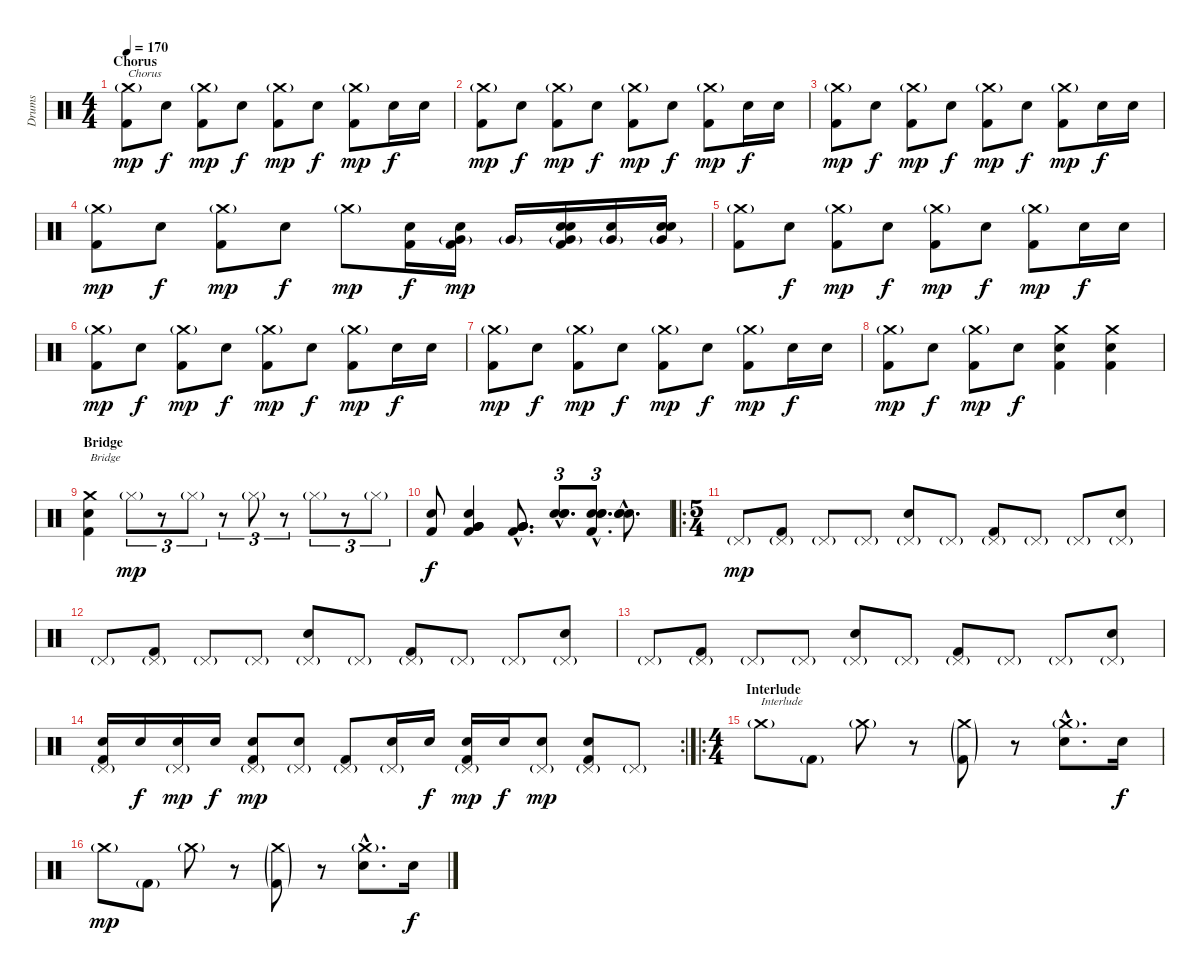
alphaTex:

\track ("Drums" "Drums") {instrument percussion}
\staff {score}
\articulation defaults
\ts (4 4)
\section ("" "Chorus")
\tempo 170
\clef neutral
\ks c
("Crash medium (hit)"{g} "Kick (hit) 2").8{txt "Chorus" dy mp} "Snare (hit) 2".8{dy f} ("Crash medium (hit)"{g} "Kick (hit) 2").8{dy mp} "Snare (hit) 2".8{dy f} ("Crash medium (hit)"{g} "Kick (hit) 2").8{dy mp} "Snare (hit) 2".8{dy f} ("Crash medium (hit)"{g} "Kick (hit) 2").8{dy mp} "Snare (hit) 2".16{dy f} "Snare (hit) 2".16 |
("Crash medium (hit)"{g} "Kick (hit) 2").8{dy mp} "Snare (hit) 2".8{dy f} ("Crash medium (hit)"{g} "Kick (hit) 2").8{dy mp} "Snare (hit) 2".8{dy f} ("Crash medium (hit)"{g} "Kick (hit) 2").8{dy mp} "Snare (hit) 2".8{dy f} ("Crash medium (hit)"{g} "Kick (hit) 2").8{dy mp} "Snare (hit) 2".16{dy f} "Snare (hit) 2".16 |
("Crash medium (hit)"{g} "Kick (hit) 2").8{dy mp} "Snare (hit) 2".8{dy f} ("Crash medium (hit)"{g} "Kick (hit) 2").8{dy mp} "Snare (hit) 2".8{dy f} ("Crash medium (hit)"{g} "Kick (hit) 2").8{dy mp} "Snare (hit) 2".8{dy f} ("Crash medium (hit)"{g} "Kick (hit) 2").8{dy mp} "Snare (hit) 2".16{dy f} "Snare (hit) 2".16 |
("Crash medium (hit)"{g} "Kick (hit) 2").8{dy mp} "Snare (hit) 2".8{dy f} ("Crash medium (hit)"{g} "Kick (hit) 2").8{dy mp} "Snare (hit) 2".8{dy f} "Crash medium (hit)"{g}.8{dy mp} ("Snare (hit) 2" "Kick (hit) 2").16{dy f} ("Very Low Tom (hit)"{g} "Snare (hit) 2" "Kick (hit) 2").16{dy mp} "Very Low Tom (hit)"{g}.16 ("Very Low Tom (hit)"{g} "Snare (hit) 2" "Kick (hit) 2" "Snare (hit) 2").16 ("Very Low Tom (hit)"{g} "Snare (hit) 2").16 ("Very Low Tom (hit)"{g} "Snare (hit) 2" "Snare (hit) 2").16 |
("Crash medium (hit)"{g} "Kick (hit) 2").8 "Snare (hit) 2".8{dy f} ("Crash medium (hit)"{g} "Kick (hit) 2").8{dy mp} "Snare (hit) 2".8{dy f} ("Crash medium (hit)"{g} "Kick (hit) 2").8{dy mp} "Snare (hit) 2".8{dy f} ("Crash medium (hit)"{g} "Kick (hit) 2").8{dy mp} "Snare (hit) 2".16{dy f} "Snare (hit) 2".16 |
("Crash medium (hit)"{g} "Kick (hit) 2").8{dy mp} "Snare (hit) 2".8{dy f} ("Crash medium (hit)"{g} "Kick (hit) 2").8{dy mp} "Snare (hit) 2".8{dy f} ("Crash medium (hit)"{g} "Kick (hit) 2").8{dy mp} "Snare (hit) 2".8{dy f} ("Crash medium (hit)"{g} "Kick (hit) 2").8{dy mp} "Snare (hit) 2".16{dy f} "Snare (hit) 2".16 |
("Crash medium (hit)"{g} "Kick (hit) 2").8{dy mp} "Snare (hit) 2".8{dy f} ("Crash medium (hit)"{g} "Kick (hit) 2").8{dy mp} "Snare (hit) 2".8{dy f} ("Crash medium (hit)"{g} "Kick (hit) 2").8{dy mp} "Snare (hit) 2".8{dy f} ("Crash medium (hit)"{g} "Kick (hit) 2").8{dy mp} "Snare (hit) 2".16{dy f} "Snare (hit) 2".16 |
("Crash medium (hit)"{g} "Kick (hit) 2").8{dy mp} "Snare (hit) 2".8{dy f} ("Crash medium (hit)"{g} "Kick (hit) 2").8{dy mp} "Snare (hit) 2".8{dy f} ("Crash medium (hit)" "Snare (hit) 2" "Kick (hit) 2").4 ("Crash medium (hit)" "Snare (hit) 2" "Kick (hit) 2").4 |
\section ("" "Bridge")
("Crash medium (hit)" "Snare (hit) 2" "Kick (hit) 2").4{txt "Bridge"} "Hi-Hat (closed)"{g}.8{tu (3 2) dy mp} r.8{tu (3 2)} "Hi-Hat (closed)"{g}.8{tu (3 2)} r.8{tu (3 2)} "Hi-Hat (closed)"{g}.8{tu (3 2)} r.8{tu (3 2)} "Hi-Hat (closed)"{g}.8{tu (3 2)} r.8{tu (3 2)} "Hi-Hat (closed)"{g}.8{tu (3 2)} |
("Snare (hit) 2" "Kick (hit) 2").8{dy f} ("Very Low Tom (hit)" "Very Low Tom (hit)" "Very Low Tom (hit)" "Snare (hit) 2" "Kick (hit) 2").4 ("Very Low Tom (hit)"{hac} "Very Low Tom (hit)"{hac} "Very Low Tom (hit)"{hac} "Kick (hit) 2"{hac}).8{d} ("Snare (hit) 2"{hac} "Electric Snare (hit)"{hac} "Snare (hit) 2"{hac}).8{d tu (3 2)} ("Snare (hit) 2"{hac} "Electric Snare (hit)"{hac} "Snare (hit) 2"{hac} "Kick (hit) 2"{hac}).8{d tu (3 2)} ("Snare (hit) 2"{hac} "Electric Snare (hit)"{hac} "Snare (hit) 2"{hac}).8{d} |
\ro
\ts (5 4)
"Pedal Hi-Hat (hit)"{g}.8{dy mp} ("Pedal Hi-Hat (hit)"{g} "Kick (hit) 2").8 "Pedal Hi-Hat (hit)"{g}.8 "Pedal Hi-Hat (hit)"{g}.8 ("Pedal Hi-Hat (hit)"{g} "Snare (hit) 2").8 "Pedal Hi-Hat (hit)"{g}.8 ("Pedal Hi-Hat (hit)"{g} "Kick (hit) 2").8 "Pedal Hi-Hat (hit)"{g}.8 "Pedal Hi-Hat (hit)"{g}.8 ("Pedal Hi-Hat (hit)"{g} "Snare (hit) 2").8 |
"Pedal Hi-Hat (hit)"{g}.8 ("Pedal Hi-Hat (hit)"{g} "Kick (hit) 2").8 "Pedal Hi-Hat (hit)"{g}.8 "Pedal Hi-Hat (hit)"{g}.8 ("Pedal Hi-Hat (hit)"{g} "Snare (hit) 2").8 "Pedal Hi-Hat (hit)"{g}.8 ("Pedal Hi-Hat (hit)"{g} "Kick (hit) 2").8 "Pedal Hi-Hat (hit)"{g}.8 "Pedal Hi-Hat (hit)"{g}.8 ("Pedal Hi-Hat (hit)"{g} "Snare (hit) 2").8 |
"Pedal Hi-Hat (hit)"{g}.8 ("Pedal Hi-Hat (hit)"{g} "Kick (hit) 2").8 "Pedal Hi-Hat (hit)"{g}.8 "Pedal Hi-Hat (hit)"{g}.8 ("Pedal Hi-Hat (hit)"{g} "Snare (hit) 2").8 "Pedal Hi-Hat (hit)"{g}.8 ("Pedal Hi-Hat (hit)"{g} "Kick (hit) 2").8 "Pedal Hi-Hat (hit)"{g}.8 "Pedal Hi-Hat (hit)"{g}.8 ("Pedal Hi-Hat (hit)"{g} "Snare (hit) 2").8 |
\rc 2
("Pedal Hi-Hat (hit)"{g} "Snare (hit) 2" "Kick (hit) 2").16 "Snare (hit) 2".16{dy f} ("Pedal Hi-Hat (hit)"{g} "Snare (hit) 2").16{dy mp} "Snare (hit) 2".16{dy f} ("Pedal Hi-Hat (hit)"{g} "Snare (hit) 2" "Kick (hit) 2").8{dy mp} ("Pedal Hi-Hat (hit)"{g} "Snare (hit) 2").8 ("Pedal Hi-Hat (hit)"{g} "Kick (hit) 2").8 ("Pedal Hi-Hat (hit)"{g} "Snare (hit) 2").16 "Snare (hit) 2".16{dy f} ("Pedal Hi-Hat (hit)"{g} "Snare (hit) 2" "Kick (hit) 2").16{dy mp} "Snare (hit) 2".16{dy f} ("Pedal Hi-Hat (hit)"{g} "Snare (hit) 2").8{dy mp} ("Pedal Hi-Hat (hit)"{g} "Snare (hit) 2" "Kick (hit) 2").8 "Pedal Hi-Hat (hit)"{g}.8 |
\ro
\ts (4 4)
\section ("" "Interlude")
"Crash medium (hit)"{g}.8{txt "Interlude"} "Kick (hit) 2"{g}.8 "Crash medium (hit)"{g}.8 r.8 ("Crash medium (hit)"{g} "Kick (hit) 2"{g}).8 r.8 ("Crash medium (hit)"{g hac} "Snare (hit) 2"{hac}).8{d} "Snare (hit) 2".16{dy f} |
"Crash medium (hit)"{g}.8{dy mp} "Kick (hit) 2"{g}.8 "Crash medium (hit)"{g}.8 r.8 ("Crash medium (hit)"{g} "Kick (hit) 2"{g}).8 r.8 ("Crash medium (hit)"{g hac} "Snare (hit) 2"{hac}).8{d} "Snare (hit) 2".16{dy f}
